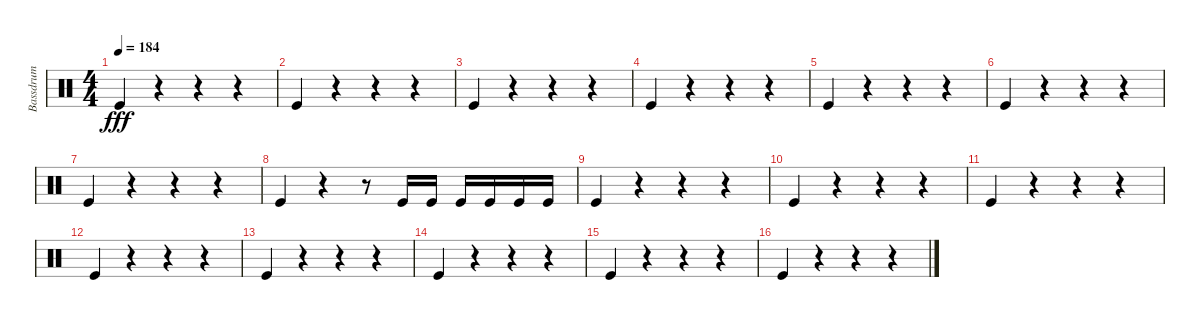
\track ("Bassdrum" "Bassdrum") {instrument percussion}
\staff {score}
\articulation defaults
\ts (4 4)
\tempo 184
\clef neutral
\ks c "Kick (hit)".4{dy fff}
r.4 r.4 r.4 |
"Kick (hit)".4 r.4 r.4 r.4 |
"Kick (hit)".4 r.4 r.4 r.4 |
"Kick (hit)".4 r.4 r.4 r.4 |
"Kick (hit)".4 r.4 r.4 r.4 |
"Kick (hit)".4 r.4 r.4 r.4 |
"Kick (hit)".4 r.4 r.4 r.4 |
"Kick (hit)".4 r.4 r.8 "Kick (hit)".16 "Kick (hit)".16 "Kick (hit)".16 "Kick (hit)".16 "Kick (hit)".16 "Kick (hit)".16 |
"Kick (hit)".4 r.4 r.4 r.4 |
"Kick (hit)".4 r.4 r.4 r.4 |
"Kick (hit)".4 r.4 r.4 r.4 |
"Kick (hit)".4 r.4 r.4 r.4 |
"Kick (hit)".4 r.4 r.4 r.4 |
"Kick (hit)".4 r.4 r.4 r.4 |
"Kick (hit)".4 r.4 r.4 r.4 |
"Kick (hit)".4 r.4 r.4 r.4
